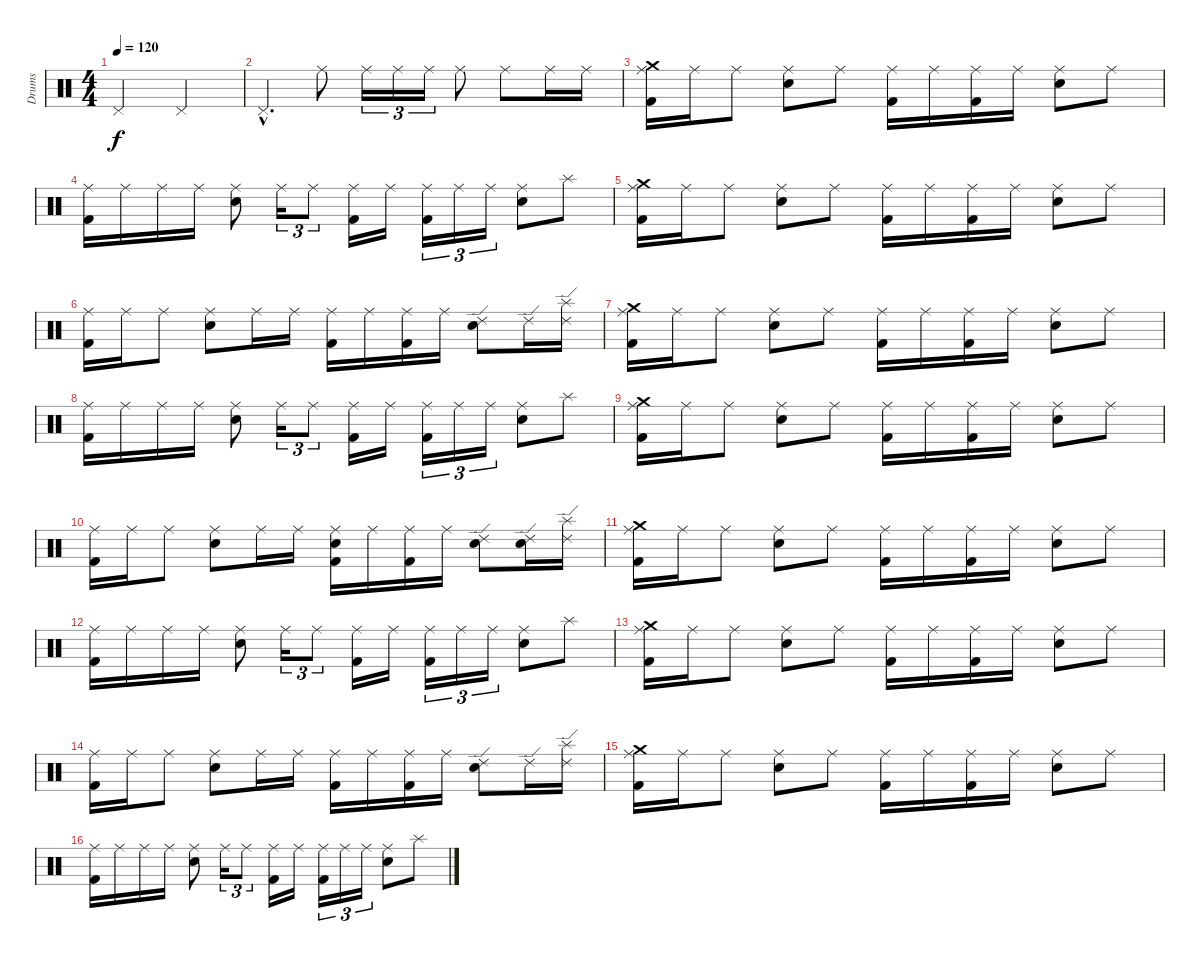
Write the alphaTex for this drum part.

\track ("Drums" "Drums") {instrument percussion}
\staff {score}
\articulation defaults
\ts (4 4)
\tempo 120
\clef neutral
\ks c "Pedal Hi-Hat (hit)".2{dy f} "Pedal Hi-Hat (hit)".2
|
"Pedal Hi-Hat (hit)"{hac}.4{d} "Ride (middle)".8 "Ride (middle)".16{tu (3 2)} "Ride (middle)".16{tu (3 2)} "Ride (middle)".16{tu (3 2)} "Ride (middle)".8 "Ride (middle)".8 "Ride (middle)".16 "Ride (middle)".16 |
("Crash medium (hit)" "Ride (middle)" "Kick (hit) 2").16 "Ride (middle)".16 "Ride (middle)".8 ("Ride (middle)" "Electric Snare (hit)").8 "Ride (middle)".8 ("Ride (middle)" "Kick (hit) 2").16 "Ride (middle)".16 ("Ride (middle)" "Kick (hit) 2").16 "Ride (middle)".16 ("Ride (middle)" "Electric Snare (hit)").8 "Ride (middle)".8 |
("Ride (middle)" "Kick (hit) 2").16 "Ride (middle)".16 "Ride (middle)".16 "Ride (middle)".16 ("Ride (middle)" "Electric Snare (hit)").8 "Ride (middle)".16{tu (3 2)} "Ride (middle)".8{tu (3 2)} ("Ride (middle)" "Kick (hit) 2").16 "Ride (middle)".16 ("Ride (middle)" "Kick (hit) 2").16{tu (3 2)} "Ride (middle)".16{tu (3 2)} "Ride (middle)".16{tu (3 2)} ("Ride (middle)" "Electric Snare (hit)").8 "Splash (hit)".8 |
("Crash medium (hit)" "Ride (middle)" "Kick (hit) 2").16 "Ride (middle)".16 "Ride (middle)".8 ("Ride (middle)" "Electric Snare (hit)").8 "Ride (middle)".8 ("Ride (middle)" "Kick (hit) 2").16 "Ride (middle)".16 ("Ride (middle)" "Kick (hit) 2").16 "Ride (middle)".16 ("Ride (middle)" "Electric Snare (hit)").8 "Ride (middle)".8 |
("Ride (middle)" "Kick (hit) 2").16 "Ride (middle)".16 "Ride (middle)".8 ("Ride (middle)" "Electric Snare (hit)").8 "Ride (middle)".16 "Ride (middle)".16 ("Ride (middle)" "Kick (hit) 2").16 "Ride (middle)".16 ("Ride (middle)" "Kick (hit) 2").16 "Ride (middle)".16 ("Ride (edge) 2" "Electric Snare (hit)").8 "Ride (edge) 2".16 ("Ride (edge) 2" "Splash (hit)").16 |
("Crash medium (hit)" "Ride (middle)" "Kick (hit) 2").16 "Ride (middle)".16 "Ride (middle)".8 ("Ride (middle)" "Electric Snare (hit)").8 "Ride (middle)".8 ("Ride (middle)" "Kick (hit) 2").16 "Ride (middle)".16 ("Ride (middle)" "Kick (hit) 2").16 "Ride (middle)".16 ("Ride (middle)" "Electric Snare (hit)").8 "Ride (middle)".8 |
("Ride (middle)" "Kick (hit) 2").16 "Ride (middle)".16 "Ride (middle)".16 "Ride (middle)".16 ("Ride (middle)" "Electric Snare (hit)").8 "Ride (middle)".16{tu (3 2)} "Ride (middle)".8{tu (3 2)} ("Ride (middle)" "Kick (hit) 2").16 "Ride (middle)".16 ("Ride (middle)" "Kick (hit) 2").16{tu (3 2)} "Ride (middle)".16{tu (3 2)} "Ride (middle)".16{tu (3 2)} ("Ride (middle)" "Electric Snare (hit)").8 "Splash (hit)".8 |
("Crash medium (hit)" "Ride (middle)" "Kick (hit) 2").16 "Ride (middle)".16 "Ride (middle)".8 ("Ride (middle)" "Electric Snare (hit)").8 "Ride (middle)".8 ("Ride (middle)" "Kick (hit) 2").16 "Ride (middle)".16 ("Ride (middle)" "Kick (hit) 2").16 "Ride (middle)".16 ("Ride (middle)" "Electric Snare (hit)").8 "Ride (middle)".8 |
("Ride (middle)" "Kick (hit) 2").16 "Ride (middle)".16 "Ride (middle)".8 ("Ride (middle)" "Electric Snare (hit)").8 "Ride (middle)".16 "Ride (middle)".16 ("Ride (middle)" "Electric Snare (hit)" "Kick (hit) 2").16 "Ride (middle)".16 ("Ride (middle)" "Kick (hit) 2").16 "Ride (middle)".16 ("Ride (edge) 2" "Electric Snare (hit)").8 ("Ride (edge) 2" "Electric Snare (hit)").16 ("Ride (edge) 2" "Splash (hit)").16 |
("Crash medium (hit)" "Ride (middle)" "Kick (hit) 2").16 "Ride (middle)".16 "Ride (middle)".8 ("Ride (middle)" "Electric Snare (hit)").8 "Ride (middle)".8 ("Ride (middle)" "Kick (hit) 2").16 "Ride (middle)".16 ("Ride (middle)" "Kick (hit) 2").16 "Ride (middle)".16 ("Ride (middle)" "Electric Snare (hit)").8 "Ride (middle)".8 |
("Ride (middle)" "Kick (hit) 2").16 "Ride (middle)".16 "Ride (middle)".16 "Ride (middle)".16 ("Ride (middle)" "Electric Snare (hit)").8 "Ride (middle)".16{tu (3 2)} "Ride (middle)".8{tu (3 2)} ("Ride (middle)" "Kick (hit) 2").16 "Ride (middle)".16 ("Ride (middle)" "Kick (hit) 2").16{tu (3 2)} "Ride (middle)".16{tu (3 2)} "Ride (middle)".16{tu (3 2)} ("Ride (middle)" "Electric Snare (hit)").8 "Splash (hit)".8 |
("Crash medium (hit)" "Ride (middle)" "Kick (hit) 2").16 "Ride (middle)".16 "Ride (middle)".8 ("Ride (middle)" "Electric Snare (hit)").8 "Ride (middle)".8 ("Ride (middle)" "Kick (hit) 2").16 "Ride (middle)".16 ("Ride (middle)" "Kick (hit) 2").16 "Ride (middle)".16 ("Ride (middle)" "Electric Snare (hit)").8 "Ride (middle)".8 |
("Ride (middle)" "Kick (hit) 2").16 "Ride (middle)".16 "Ride (middle)".8 ("Ride (middle)" "Electric Snare (hit)").8 "Ride (middle)".16 "Ride (middle)".16 ("Ride (middle)" "Kick (hit) 2").16 "Ride (middle)".16 ("Ride (middle)" "Kick (hit) 2").16 "Ride (middle)".16 ("Ride (edge) 2" "Electric Snare (hit)").8 "Ride (edge) 2".16 ("Ride (edge) 2" "Splash (hit)").16 |
("Crash medium (hit)" "Ride (middle)" "Kick (hit) 2").16 "Ride (middle)".16 "Ride (middle)".8 ("Ride (middle)" "Electric Snare (hit)").8 "Ride (middle)".8 ("Ride (middle)" "Kick (hit) 2").16 "Ride (middle)".16 ("Ride (middle)" "Kick (hit) 2").16 "Ride (middle)".16 ("Ride (middle)" "Electric Snare (hit)").8 "Ride (middle)".8 |
("Ride (middle)" "Kick (hit) 2").16 "Ride (middle)".16 "Ride (middle)".16 "Ride (middle)".16 ("Ride (middle)" "Electric Snare (hit)").8 "Ride (middle)".16{tu (3 2)} "Ride (middle)".8{tu (3 2)} ("Ride (middle)" "Kick (hit) 2").16 "Ride (middle)".16 ("Ride (middle)" "Kick (hit) 2").16{tu (3 2)} "Ride (middle)".16{tu (3 2)} "Ride (middle)".16{tu (3 2)} ("Ride (middle)" "Electric Snare (hit)").8 "Splash (hit)".8
